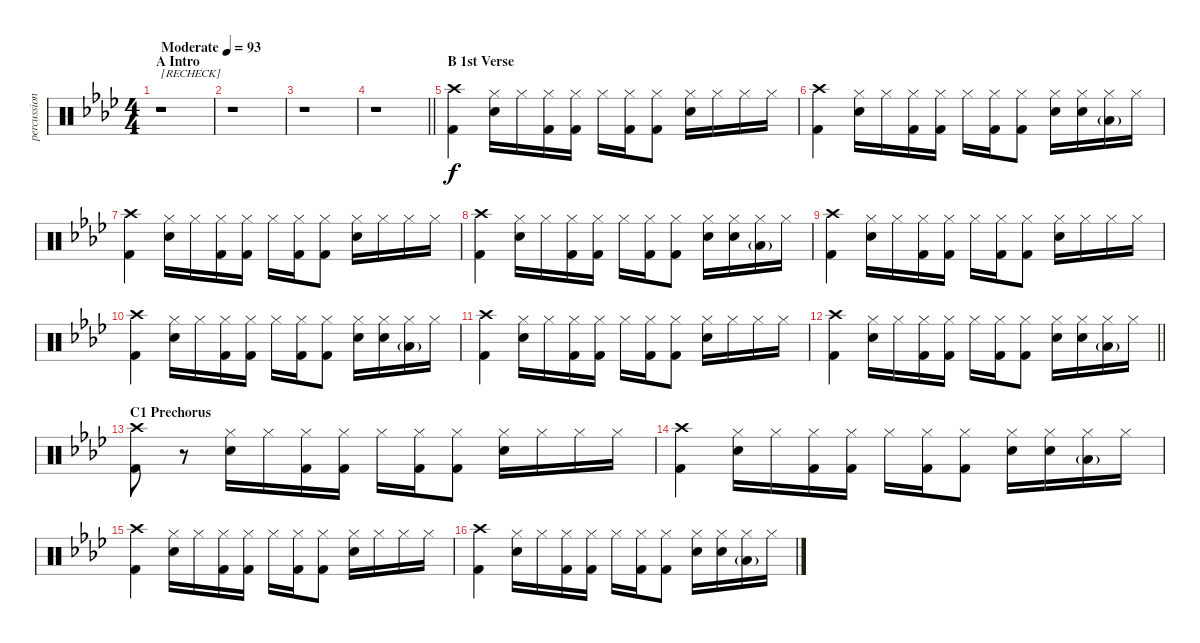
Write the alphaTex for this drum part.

\track ("percussion" "percussion") {instrument percussion}
\staff {score}
\articulation defaults
\ts (4 4)
\section ("" "A Intro")
\tempo (93 "Moderate")
\clef neutral
\ks fminor
r.1{txt "[RECHECK]" dy f} |
r.1 |
r.1 |
\barLineRight lightlight
r.1 |
\section ("" "B 1st Verse")
("Crash high (hit)" "Kick (hit) 2").4 ("Snare (hit) 2" "Hi-Hat (closed)").16 "Hi-Hat (closed)".16 ("Hi-Hat (closed)" "Kick (hit) 2").16 ("Hi-Hat (closed)" "Kick (hit) 2").16 "Hi-Hat (closed)".16 ("Hi-Hat (closed)" "Kick (hit) 2").16 ("Hi-Hat (closed)" "Kick (hit) 2").8 ("Snare (hit) 2" "Hi-Hat (closed)").16 "Hi-Hat (closed)".16 "Hi-Hat (closed)".16 "Hi-Hat (closed)".16 |
("Crash high (hit)" "Kick (hit) 2").4 ("Snare (hit) 2" "Hi-Hat (closed)").16 "Hi-Hat (closed)".16 ("Hi-Hat (closed)" "Kick (hit) 2").16 ("Hi-Hat (closed)" "Kick (hit) 2").16 "Hi-Hat (closed)".16 ("Hi-Hat (closed)" "Kick (hit) 2").16 ("Hi-Hat (closed)" "Kick (hit) 2").8 ("Snare (hit) 2" "Hi-Hat (closed)").16 ("Snare (hit) 2" "Hi-Hat (closed)").16 ("Low Floor Tom (hit)"{g} "Hi-Hat (closed)").16 "Hi-Hat (closed)".16 |
("Crash high (hit)" "Kick (hit) 2").4 ("Snare (hit) 2" "Hi-Hat (closed)").16 "Hi-Hat (closed)".16 ("Hi-Hat (closed)" "Kick (hit) 2").16 ("Hi-Hat (closed)" "Kick (hit) 2").16 "Hi-Hat (closed)".16 ("Hi-Hat (closed)" "Kick (hit) 2").16 ("Hi-Hat (closed)" "Kick (hit) 2").8 ("Snare (hit) 2" "Hi-Hat (closed)").16 "Hi-Hat (closed)".16 "Hi-Hat (closed)".16 "Hi-Hat (closed)".16 |
("Crash high (hit)" "Kick (hit) 2").4 ("Snare (hit) 2" "Hi-Hat (closed)").16 "Hi-Hat (closed)".16 ("Hi-Hat (closed)" "Kick (hit) 2").16 ("Hi-Hat (closed)" "Kick (hit) 2").16 "Hi-Hat (closed)".16 ("Hi-Hat (closed)" "Kick (hit) 2").16 ("Hi-Hat (closed)" "Kick (hit) 2").8 ("Snare (hit) 2" "Hi-Hat (closed)").16 ("Snare (hit) 2" "Hi-Hat (closed)").16 ("Low Floor Tom (hit)"{g} "Hi-Hat (closed)").16 "Hi-Hat (closed)".16 |
("Crash high (hit)" "Kick (hit) 2").4 ("Snare (hit) 2" "Hi-Hat (closed)").16 "Hi-Hat (closed)".16 ("Hi-Hat (closed)" "Kick (hit) 2").16 ("Hi-Hat (closed)" "Kick (hit) 2").16 "Hi-Hat (closed)".16 ("Hi-Hat (closed)" "Kick (hit) 2").16 ("Hi-Hat (closed)" "Kick (hit) 2").8 ("Snare (hit) 2" "Hi-Hat (closed)").16 "Hi-Hat (closed)".16 "Hi-Hat (closed)".16 "Hi-Hat (closed)".16 |
("Crash high (hit)" "Kick (hit) 2").4 ("Snare (hit) 2" "Hi-Hat (closed)").16 "Hi-Hat (closed)".16 ("Hi-Hat (closed)" "Kick (hit) 2").16 ("Hi-Hat (closed)" "Kick (hit) 2").16 "Hi-Hat (closed)".16 ("Hi-Hat (closed)" "Kick (hit) 2").16 ("Hi-Hat (closed)" "Kick (hit) 2").8 ("Snare (hit) 2" "Hi-Hat (closed)").16 ("Snare (hit) 2" "Hi-Hat (closed)").16 ("Low Floor Tom (hit)"{g} "Hi-Hat (closed)").16 "Hi-Hat (closed)".16 |
("Crash high (hit)" "Kick (hit) 2").4 ("Snare (hit) 2" "Hi-Hat (closed)").16 "Hi-Hat (closed)".16 ("Hi-Hat (closed)" "Kick (hit) 2").16 ("Hi-Hat (closed)" "Kick (hit) 2").16 "Hi-Hat (closed)".16 ("Hi-Hat (closed)" "Kick (hit) 2").16 ("Hi-Hat (closed)" "Kick (hit) 2").8 ("Snare (hit) 2" "Hi-Hat (closed)").16 "Hi-Hat (closed)".16 "Hi-Hat (closed)".16 "Hi-Hat (closed)".16 |
\barLineRight lightlight
("Crash high (hit)" "Kick (hit) 2").4 ("Snare (hit) 2" "Hi-Hat (closed)").16 "Hi-Hat (closed)".16 ("Hi-Hat (closed)" "Kick (hit) 2").16 ("Hi-Hat (closed)" "Kick (hit) 2").16 "Hi-Hat (closed)".16 ("Hi-Hat (closed)" "Kick (hit) 2").16 ("Hi-Hat (closed)" "Kick (hit) 2").8 ("Snare (hit) 2" "Hi-Hat (closed)").16 ("Snare (hit) 2" "Hi-Hat (closed)").16 ("Low Floor Tom (hit)"{g} "Hi-Hat (closed)").16 "Hi-Hat (closed)".16 |
\section ("" "C1 Prechorus")
("Crash high (hit)" "Kick (hit) 2").8 r.8 ("Snare (hit) 2" "Hi-Hat (closed)").16 "Hi-Hat (closed)".16 ("Hi-Hat (closed)" "Kick (hit) 2").16 ("Hi-Hat (closed)" "Kick (hit) 2").16 "Hi-Hat (closed)".16 ("Hi-Hat (closed)" "Kick (hit) 2").16 ("Hi-Hat (closed)" "Kick (hit) 2").8 ("Snare (hit) 2" "Hi-Hat (closed)").16 "Hi-Hat (closed)".16 "Hi-Hat (closed)".16 "Hi-Hat (closed)".16 |
("Crash high (hit)" "Kick (hit) 2").4 ("Snare (hit) 2" "Hi-Hat (closed)").16 "Hi-Hat (closed)".16 ("Hi-Hat (closed)" "Kick (hit) 2").16 ("Hi-Hat (closed)" "Kick (hit) 2").16 "Hi-Hat (closed)".16 ("Hi-Hat (closed)" "Kick (hit) 2").16 ("Hi-Hat (closed)" "Kick (hit) 2").8 ("Snare (hit) 2" "Hi-Hat (closed)").16 ("Snare (hit) 2" "Hi-Hat (closed)").16 ("Low Floor Tom (hit)"{g} "Hi-Hat (closed)").16 "Hi-Hat (closed)".16 |
("Crash high (hit)" "Kick (hit) 2").4 ("Snare (hit) 2" "Hi-Hat (closed)").16 "Hi-Hat (closed)".16 ("Hi-Hat (closed)" "Kick (hit) 2").16 ("Hi-Hat (closed)" "Kick (hit) 2").16 "Hi-Hat (closed)".16 ("Hi-Hat (closed)" "Kick (hit) 2").16 ("Hi-Hat (closed)" "Kick (hit) 2").8 ("Snare (hit) 2" "Hi-Hat (closed)").16 "Hi-Hat (closed)".16 "Hi-Hat (closed)".16 "Hi-Hat (closed)".16 |
("Crash high (hit)" "Kick (hit) 2").4 ("Snare (hit) 2" "Hi-Hat (closed)").16 "Hi-Hat (closed)".16 ("Hi-Hat (closed)" "Kick (hit) 2").16 ("Hi-Hat (closed)" "Kick (hit) 2").16 "Hi-Hat (closed)".16 ("Hi-Hat (closed)" "Kick (hit) 2").16 ("Hi-Hat (closed)" "Kick (hit) 2").8 ("Snare (hit) 2" "Hi-Hat (closed)").16 ("Snare (hit) 2" "Hi-Hat (closed)").16 ("Low Floor Tom (hit)"{g} "Hi-Hat (closed)").16 "Hi-Hat (closed)".16
